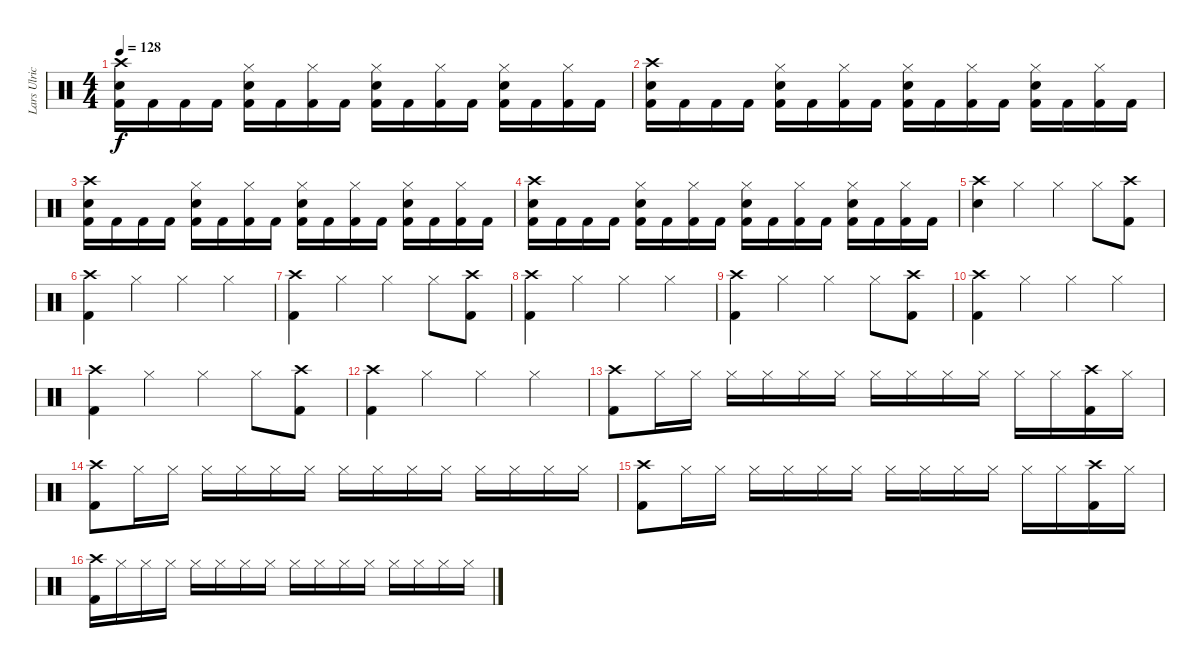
\track ("Lars Ulrich" "Lars Ulric") {instrument percussion}
\staff {score}
\articulation defaults
\ts (4 4)
\tempo 128
\clef neutral
\ks c
("Crash high (hit)" "Electric Snare (hit)" "Kick (hit) 2").16{dy f} "Kick (hit) 2".16 "Kick (hit) 2".16 "Kick (hit) 2".16 ("Hi-Hat (closed)" "Electric Snare (hit)" "Kick (hit) 2").16 "Kick (hit) 2".16 ("Hi-Hat (closed)" "Kick (hit) 2").16 "Kick (hit) 2".16 ("Hi-Hat (closed)" "Electric Snare (hit)" "Kick (hit) 2").16 "Kick (hit) 2".16 ("Hi-Hat (closed)" "Kick (hit) 2").16 "Kick (hit) 2".16 ("Hi-Hat (closed)" "Electric Snare (hit)" "Kick (hit) 2").16 "Kick (hit) 2".16 ("Hi-Hat (closed)" "Kick (hit) 2").16 "Kick (hit) 2".16 |
("Crash high (hit)" "Electric Snare (hit)" "Kick (hit) 2").16 "Kick (hit) 2".16 "Kick (hit) 2".16 "Kick (hit) 2".16 ("Hi-Hat (closed)" "Electric Snare (hit)" "Kick (hit) 2").16 "Kick (hit) 2".16 ("Hi-Hat (closed)" "Kick (hit) 2").16 "Kick (hit) 2".16 ("Hi-Hat (closed)" "Electric Snare (hit)" "Kick (hit) 2").16 "Kick (hit) 2".16 ("Hi-Hat (closed)" "Kick (hit) 2").16 "Kick (hit) 2".16 ("Hi-Hat (closed)" "Electric Snare (hit)" "Kick (hit) 2").16 "Kick (hit) 2".16 ("Hi-Hat (closed)" "Kick (hit) 2").16 "Kick (hit) 2".16 |
("Crash high (hit)" "Electric Snare (hit)" "Kick (hit) 2").16 "Kick (hit) 2".16 "Kick (hit) 2".16 "Kick (hit) 2".16 ("Hi-Hat (closed)" "Electric Snare (hit)" "Kick (hit) 2").16 "Kick (hit) 2".16 ("Hi-Hat (closed)" "Kick (hit) 2").16 "Kick (hit) 2".16 ("Hi-Hat (closed)" "Electric Snare (hit)" "Kick (hit) 2").16 "Kick (hit) 2".16 ("Hi-Hat (closed)" "Kick (hit) 2").16 "Kick (hit) 2".16 ("Hi-Hat (closed)" "Electric Snare (hit)" "Kick (hit) 2").16 "Kick (hit) 2".16 ("Hi-Hat (closed)" "Kick (hit) 2").16 "Kick (hit) 2".16 |
("Crash high (hit)" "Electric Snare (hit)" "Kick (hit) 2").16 "Kick (hit) 2".16 "Kick (hit) 2".16 "Kick (hit) 2".16 ("Hi-Hat (closed)" "Electric Snare (hit)" "Kick (hit) 2").16 "Kick (hit) 2".16 ("Hi-Hat (closed)" "Kick (hit) 2").16 "Kick (hit) 2".16 ("Hi-Hat (closed)" "Electric Snare (hit)" "Kick (hit) 2").16 "Kick (hit) 2".16 ("Hi-Hat (closed)" "Kick (hit) 2").16 "Kick (hit) 2".16 ("Hi-Hat (closed)" "Electric Snare (hit)" "Kick (hit) 2").16 "Kick (hit) 2".16 ("Hi-Hat (closed)" "Kick (hit) 2").16 "Kick (hit) 2".16 |
("Crash high (hit)" "Electric Snare (hit)").4 "Hi-Hat (closed)".4 "Hi-Hat (closed)".4 "Hi-Hat (closed)".8 ("Crash high (hit)" "Kick (hit) 2").8 |
("Crash high (hit)" "Kick (hit) 2").4 "Hi-Hat (closed)".4 "Hi-Hat (closed)".4 "Hi-Hat (closed)".4 |
("Crash high (hit)" "Kick (hit) 2").4 "Hi-Hat (closed)".4 "Hi-Hat (closed)".4 "Hi-Hat (closed)".8 ("Crash high (hit)" "Kick (hit) 2").8 |
("Crash high (hit)" "Kick (hit) 2").4 "Hi-Hat (closed)".4 "Hi-Hat (closed)".4 "Hi-Hat (closed)".4 |
("Crash high (hit)" "Kick (hit) 2").4 "Hi-Hat (closed)".4 "Hi-Hat (closed)".4 "Hi-Hat (closed)".8 ("Crash high (hit)" "Kick (hit) 2").8 |
("Crash high (hit)" "Kick (hit) 2").4 "Hi-Hat (closed)".4 "Hi-Hat (closed)".4 "Hi-Hat (closed)".4 |
("Crash high (hit)" "Kick (hit) 2").4 "Hi-Hat (closed)".4 "Hi-Hat (closed)".4 "Hi-Hat (closed)".8 ("Crash high (hit)" "Kick (hit) 2").8 |
("Crash high (hit)" "Kick (hit) 2").4 "Hi-Hat (closed)".4 "Hi-Hat (closed)".4 "Hi-Hat (closed)".4 |
("Crash high (hit)" "Kick (hit) 2").8 "Hi-Hat (closed)".16 "Hi-Hat (closed)".16 "Hi-Hat (closed)".16 "Hi-Hat (closed)".16 "Hi-Hat (closed)".16 "Hi-Hat (closed)".16 "Hi-Hat (closed)".16 "Hi-Hat (closed)".16 "Hi-Hat (closed)".16 "Hi-Hat (closed)".16 "Hi-Hat (closed)".16 "Hi-Hat (closed)".16 ("Crash high (hit)" "Kick (hit) 2").16 "Hi-Hat (closed)".16 |
("Crash high (hit)" "Kick (hit) 2").8 "Hi-Hat (closed)".16 "Hi-Hat (closed)".16 "Hi-Hat (closed)".16 "Hi-Hat (closed)".16 "Hi-Hat (closed)".16 "Hi-Hat (closed)".16 "Hi-Hat (closed)".16 "Hi-Hat (closed)".16 "Hi-Hat (closed)".16 "Hi-Hat (closed)".16 "Hi-Hat (closed)".16 "Hi-Hat (closed)".16 "Hi-Hat (closed)".16 "Hi-Hat (closed)".16 |
("Crash high (hit)" "Kick (hit) 2").8 "Hi-Hat (closed)".16 "Hi-Hat (closed)".16 "Hi-Hat (closed)".16 "Hi-Hat (closed)".16 "Hi-Hat (closed)".16 "Hi-Hat (closed)".16 "Hi-Hat (closed)".16 "Hi-Hat (closed)".16 "Hi-Hat (closed)".16 "Hi-Hat (closed)".16 "Hi-Hat (closed)".16 "Hi-Hat (closed)".16 ("Crash high (hit)" "Kick (hit) 2").16 "Hi-Hat (closed)".16 |
("Crash high (hit)" "Kick (hit) 2").16 "Hi-Hat (closed)".16 "Hi-Hat (closed)".16 "Hi-Hat (closed)".16 "Hi-Hat (closed)".16 "Hi-Hat (closed)".16 "Hi-Hat (closed)".16 "Hi-Hat (closed)".16 "Hi-Hat (closed)".16 "Hi-Hat (closed)".16 "Hi-Hat (closed)".16 "Hi-Hat (closed)".16 "Hi-Hat (closed)".16 "Hi-Hat (closed)".16 "Hi-Hat (closed)".16 "Hi-Hat (closed)".16
